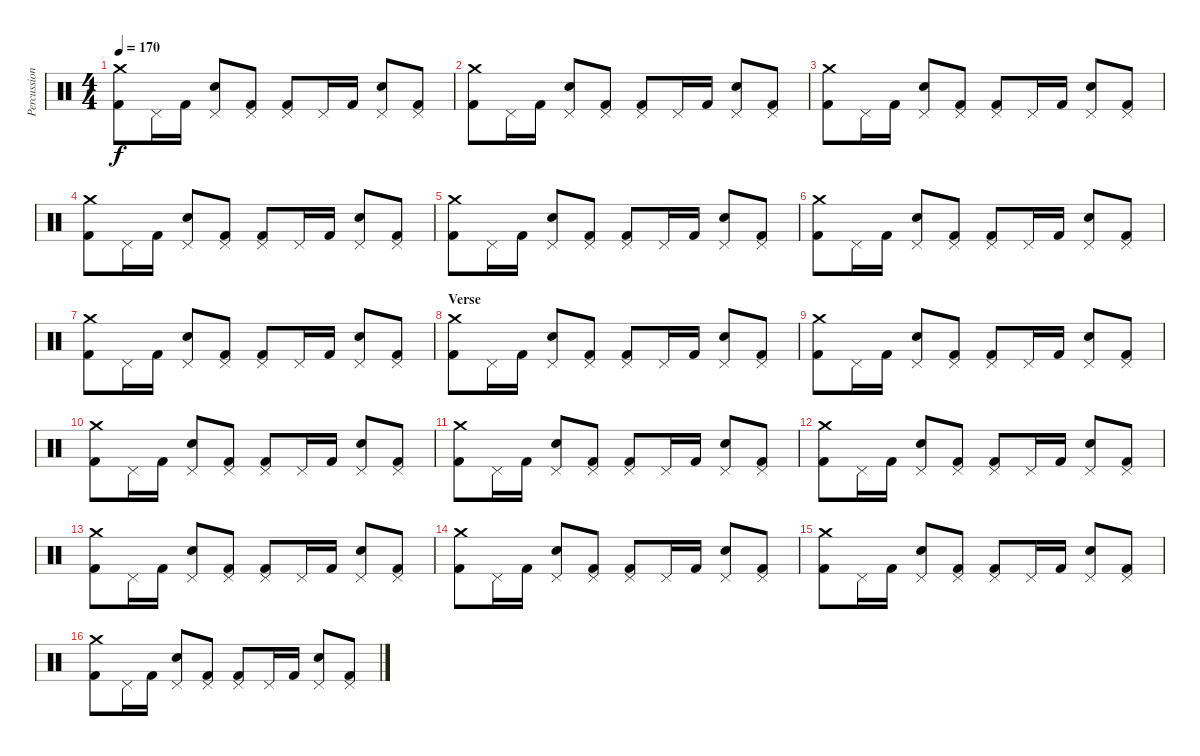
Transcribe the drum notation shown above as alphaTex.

\track ("Percussions" "Percussion") {instrument percussion}
\staff {score}
\articulation defaults
\ts (4 4)
\tempo 170
\clef neutral
\ks c
("Crash medium (hit)" "Kick (hit) 2").8{dy f} "Pedal Hi-Hat (hit)".16 "Kick (hit) 2".16 ("Pedal Hi-Hat (hit)" "Snare (hit) 2").8 ("Pedal Hi-Hat (hit)" "Kick (hit) 2").8 ("Pedal Hi-Hat (hit)" "Kick (hit) 2").8 "Pedal Hi-Hat (hit)".16 "Kick (hit) 2".16 ("Pedal Hi-Hat (hit)" "Snare (hit) 2").8 ("Pedal Hi-Hat (hit)" "Kick (hit) 2").8 |
("Crash medium (hit)" "Kick (hit) 2").8 "Pedal Hi-Hat (hit)".16 "Kick (hit) 2".16 ("Pedal Hi-Hat (hit)" "Snare (hit) 2").8 ("Pedal Hi-Hat (hit)" "Kick (hit) 2").8 ("Pedal Hi-Hat (hit)" "Kick (hit) 2").8 "Pedal Hi-Hat (hit)".16 "Kick (hit) 2".16 ("Pedal Hi-Hat (hit)" "Snare (hit) 2").8 ("Pedal Hi-Hat (hit)" "Kick (hit) 2").8 |
("Crash medium (hit)" "Kick (hit) 2").8 "Pedal Hi-Hat (hit)".16 "Kick (hit) 2".16 ("Pedal Hi-Hat (hit)" "Snare (hit) 2").8 ("Pedal Hi-Hat (hit)" "Kick (hit) 2").8 ("Pedal Hi-Hat (hit)" "Kick (hit) 2").8 "Pedal Hi-Hat (hit)".16 "Kick (hit) 2".16 ("Pedal Hi-Hat (hit)" "Snare (hit) 2").8 ("Pedal Hi-Hat (hit)" "Kick (hit) 2").8 |
("Crash medium (hit)" "Kick (hit) 2").8 "Pedal Hi-Hat (hit)".16 "Kick (hit) 2".16 ("Pedal Hi-Hat (hit)" "Snare (hit) 2").8 ("Pedal Hi-Hat (hit)" "Kick (hit) 2").8 ("Pedal Hi-Hat (hit)" "Kick (hit) 2").8 "Pedal Hi-Hat (hit)".16 "Kick (hit) 2".16 ("Pedal Hi-Hat (hit)" "Snare (hit) 2").8 ("Pedal Hi-Hat (hit)" "Kick (hit) 2").8 |
("Crash medium (hit)" "Kick (hit) 2").8 "Pedal Hi-Hat (hit)".16 "Kick (hit) 2".16 ("Pedal Hi-Hat (hit)" "Snare (hit) 2").8 ("Pedal Hi-Hat (hit)" "Kick (hit) 2").8 ("Pedal Hi-Hat (hit)" "Kick (hit) 2").8 "Pedal Hi-Hat (hit)".16 "Kick (hit) 2".16 ("Pedal Hi-Hat (hit)" "Snare (hit) 2").8 ("Pedal Hi-Hat (hit)" "Kick (hit) 2").8 |
("Crash medium (hit)" "Kick (hit) 2").8 "Pedal Hi-Hat (hit)".16 "Kick (hit) 2".16 ("Pedal Hi-Hat (hit)" "Snare (hit) 2").8 ("Pedal Hi-Hat (hit)" "Kick (hit) 2").8 ("Pedal Hi-Hat (hit)" "Kick (hit) 2").8 "Pedal Hi-Hat (hit)".16 "Kick (hit) 2".16 ("Pedal Hi-Hat (hit)" "Snare (hit) 2").8 ("Pedal Hi-Hat (hit)" "Kick (hit) 2").8 |
("Crash medium (hit)" "Kick (hit) 2").8 "Pedal Hi-Hat (hit)".16 "Kick (hit) 2".16 ("Pedal Hi-Hat (hit)" "Snare (hit) 2").8 ("Pedal Hi-Hat (hit)" "Kick (hit) 2").8 ("Pedal Hi-Hat (hit)" "Kick (hit) 2").8 "Pedal Hi-Hat (hit)".16 "Kick (hit) 2".16 ("Pedal Hi-Hat (hit)" "Snare (hit) 2").8 ("Pedal Hi-Hat (hit)" "Kick (hit) 2").8 |
\section ("" "Verse")
("Crash medium (hit)" "Kick (hit) 2").8 "Pedal Hi-Hat (hit)".16 "Kick (hit) 2".16 ("Pedal Hi-Hat (hit)" "Snare (hit) 2").8 ("Pedal Hi-Hat (hit)" "Kick (hit) 2").8 ("Pedal Hi-Hat (hit)" "Kick (hit) 2").8 "Pedal Hi-Hat (hit)".16 "Kick (hit) 2".16 ("Pedal Hi-Hat (hit)" "Snare (hit) 2").8 ("Pedal Hi-Hat (hit)" "Kick (hit) 2").8 |
("Crash medium (hit)" "Kick (hit) 2").8 "Pedal Hi-Hat (hit)".16 "Kick (hit) 2".16 ("Pedal Hi-Hat (hit)" "Snare (hit) 2").8 ("Pedal Hi-Hat (hit)" "Kick (hit) 2").8 ("Pedal Hi-Hat (hit)" "Kick (hit) 2").8 "Pedal Hi-Hat (hit)".16 "Kick (hit) 2".16 ("Pedal Hi-Hat (hit)" "Snare (hit) 2").8 ("Pedal Hi-Hat (hit)" "Kick (hit) 2").8 |
("Crash medium (hit)" "Kick (hit) 2").8 "Pedal Hi-Hat (hit)".16 "Kick (hit) 2".16 ("Pedal Hi-Hat (hit)" "Snare (hit) 2").8 ("Pedal Hi-Hat (hit)" "Kick (hit) 2").8 ("Pedal Hi-Hat (hit)" "Kick (hit) 2").8 "Pedal Hi-Hat (hit)".16 "Kick (hit) 2".16 ("Pedal Hi-Hat (hit)" "Snare (hit) 2").8 ("Pedal Hi-Hat (hit)" "Kick (hit) 2").8 |
("Crash medium (hit)" "Kick (hit) 2").8 "Pedal Hi-Hat (hit)".16 "Kick (hit) 2".16 ("Pedal Hi-Hat (hit)" "Snare (hit) 2").8 ("Pedal Hi-Hat (hit)" "Kick (hit) 2").8 ("Pedal Hi-Hat (hit)" "Kick (hit) 2").8 "Pedal Hi-Hat (hit)".16 "Kick (hit) 2".16 ("Pedal Hi-Hat (hit)" "Snare (hit) 2").8 ("Pedal Hi-Hat (hit)" "Kick (hit) 2").8 |
("Crash medium (hit)" "Kick (hit) 2").8 "Pedal Hi-Hat (hit)".16 "Kick (hit) 2".16 ("Pedal Hi-Hat (hit)" "Snare (hit) 2").8 ("Pedal Hi-Hat (hit)" "Kick (hit) 2").8 ("Pedal Hi-Hat (hit)" "Kick (hit) 2").8 "Pedal Hi-Hat (hit)".16 "Kick (hit) 2".16 ("Pedal Hi-Hat (hit)" "Snare (hit) 2").8 ("Pedal Hi-Hat (hit)" "Kick (hit) 2").8 |
("Crash medium (hit)" "Kick (hit) 2").8 "Pedal Hi-Hat (hit)".16 "Kick (hit) 2".16 ("Pedal Hi-Hat (hit)" "Snare (hit) 2").8 ("Pedal Hi-Hat (hit)" "Kick (hit) 2").8 ("Pedal Hi-Hat (hit)" "Kick (hit) 2").8 "Pedal Hi-Hat (hit)".16 "Kick (hit) 2".16 ("Pedal Hi-Hat (hit)" "Snare (hit) 2").8 ("Pedal Hi-Hat (hit)" "Kick (hit) 2").8 |
("Crash medium (hit)" "Kick (hit) 2").8 "Pedal Hi-Hat (hit)".16 "Kick (hit) 2".16 ("Pedal Hi-Hat (hit)" "Snare (hit) 2").8 ("Pedal Hi-Hat (hit)" "Kick (hit) 2").8 ("Pedal Hi-Hat (hit)" "Kick (hit) 2").8 "Pedal Hi-Hat (hit)".16 "Kick (hit) 2".16 ("Pedal Hi-Hat (hit)" "Snare (hit) 2").8 ("Pedal Hi-Hat (hit)" "Kick (hit) 2").8 |
("Crash medium (hit)" "Kick (hit) 2").8 "Pedal Hi-Hat (hit)".16 "Kick (hit) 2".16 ("Pedal Hi-Hat (hit)" "Snare (hit) 2").8 ("Pedal Hi-Hat (hit)" "Kick (hit) 2").8 ("Pedal Hi-Hat (hit)" "Kick (hit) 2").8 "Pedal Hi-Hat (hit)".16 "Kick (hit) 2".16 ("Pedal Hi-Hat (hit)" "Snare (hit) 2").8 ("Pedal Hi-Hat (hit)" "Kick (hit) 2").8 |
("Crash medium (hit)" "Kick (hit) 2").8 "Pedal Hi-Hat (hit)".16 "Kick (hit) 2".16 ("Pedal Hi-Hat (hit)" "Snare (hit) 2").8 ("Pedal Hi-Hat (hit)" "Kick (hit) 2").8 ("Pedal Hi-Hat (hit)" "Kick (hit) 2").8 "Pedal Hi-Hat (hit)".16 "Kick (hit) 2".16 ("Pedal Hi-Hat (hit)" "Snare (hit) 2").8 ("Pedal Hi-Hat (hit)" "Kick (hit) 2").8
